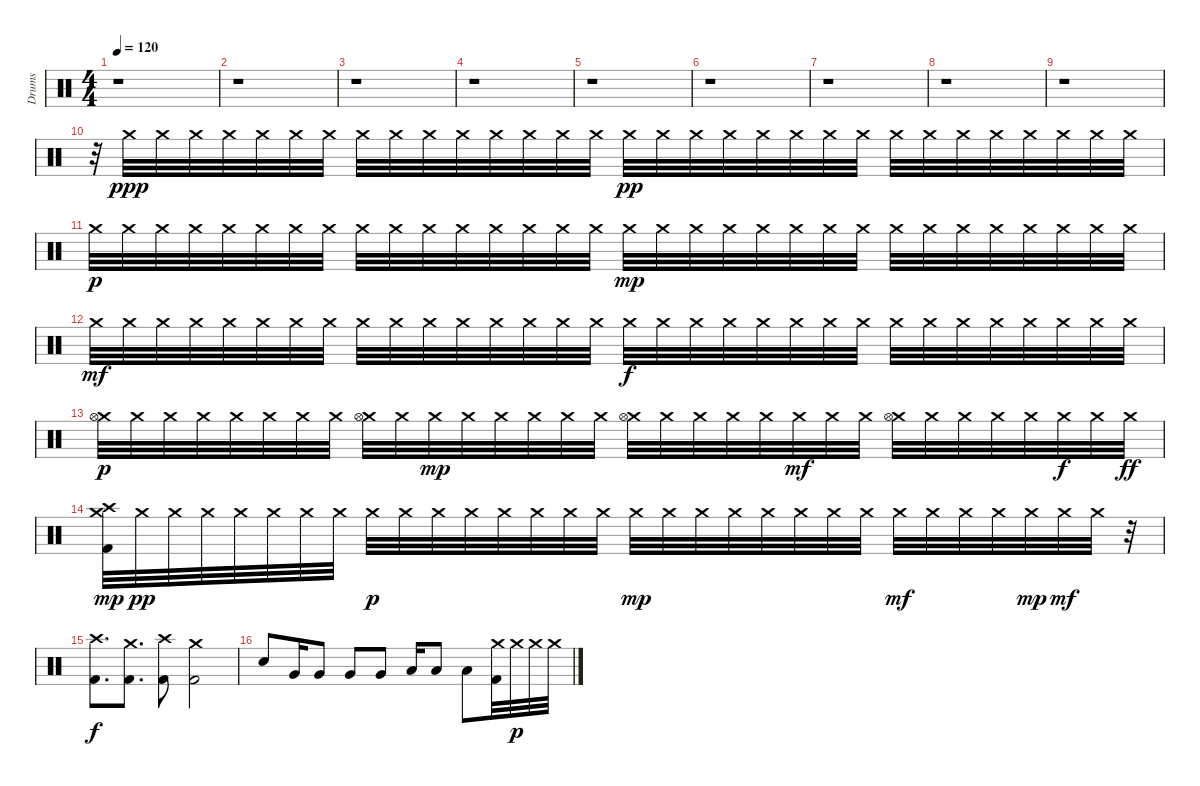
\track ("Drums" "Drums") {instrument percussion}
\staff {score}
\articulation defaults
\ts (4 4)
\tempo 120
\clef neutral
\ks c
r.1{dy ppp} |
r.1 |
r.1 |
r.1 |
r.1 |
r.1 |
r.1 |
r.1 |
r.1 |
r.32 "Crash medium (hit)".32 "Crash medium (hit)".32 "Crash medium (hit)".32 "Crash medium (hit)".32 "Crash medium (hit)".32 "Crash medium (hit)".32 "Crash medium (hit)".32 "Crash medium (hit)".32 "Crash medium (hit)".32 "Crash medium (hit)".32 "Crash medium (hit)".32 "Crash medium (hit)".32 "Crash medium (hit)".32 "Crash medium (hit)".32 "Crash medium (hit)".32 "Crash medium (hit)".32{dy pp} "Crash medium (hit)".32 "Crash medium (hit)".32 "Crash medium (hit)".32 "Crash medium (hit)".32 "Crash medium (hit)".32 "Crash medium (hit)".32 "Crash medium (hit)".32 "Crash medium (hit)".32 "Crash medium (hit)".32 "Crash medium (hit)".32 "Crash medium (hit)".32 "Crash medium (hit)".32 "Crash medium (hit)".32 "Crash medium (hit)".32 "Crash medium (hit)".32 |
"Crash medium (hit)".32{dy p} "Crash medium (hit)".32 "Crash medium (hit)".32 "Crash medium (hit)".32 "Crash medium (hit)".32 "Crash medium (hit)".32 "Crash medium (hit)".32 "Crash medium (hit)".32 "Crash medium (hit)".32 "Crash medium (hit)".32 "Crash medium (hit)".32 "Crash medium (hit)".32 "Crash medium (hit)".32 "Crash medium (hit)".32 "Crash medium (hit)".32 "Crash medium (hit)".32 "Crash medium (hit)".32{dy mp} "Crash medium (hit)".32 "Crash medium (hit)".32 "Crash medium (hit)".32 "Crash medium (hit)".32 "Crash medium (hit)".32 "Crash medium (hit)".32 "Crash medium (hit)".32 "Crash medium (hit)".32 "Crash medium (hit)".32 "Crash medium (hit)".32 "Crash medium (hit)".32 "Crash medium (hit)".32 "Crash medium (hit)".32 "Crash medium (hit)".32 "Crash medium (hit)".32 |
"Crash medium (hit)".32{dy mf} "Crash medium (hit)".32 "Crash medium (hit)".32 "Crash medium (hit)".32 "Crash medium (hit)".32 "Crash medium (hit)".32 "Crash medium (hit)".32 "Crash medium (hit)".32 "Crash medium (hit)".32 "Crash medium (hit)".32 "Crash medium (hit)".32 "Crash medium (hit)".32 "Crash medium (hit)".32 "Crash medium (hit)".32 "Crash medium (hit)".32 "Crash medium (hit)".32 "Crash medium (hit)".32{dy f} "Crash medium (hit)".32 "Crash medium (hit)".32 "Crash medium (hit)".32 "Crash medium (hit)".32 "Crash medium (hit)".32 "Crash medium (hit)".32 "Crash medium (hit)".32 "Crash medium (hit)".32 "Crash medium (hit)".32 "Crash medium (hit)".32 "Crash medium (hit)".32 "Crash medium (hit)".32 "Crash medium (hit)".32 "Crash medium (hit)".32 "Crash medium (hit)".32 |
("Crash medium (hit)" "Hi-Hat (open)").32{dy p} "Crash medium (hit)".32 "Crash medium (hit)".32 "Crash medium (hit)".32 "Crash medium (hit)".32 "Crash medium (hit)".32 "Crash medium (hit)".32 "Crash medium (hit)".32 ("Crash medium (hit)" "Hi-Hat (open)").32 "Crash medium (hit)".32 "Crash medium (hit)".32{dy mp} "Crash medium (hit)".32 "Crash medium (hit)".32 "Crash medium (hit)".32 "Crash medium (hit)".32 "Crash medium (hit)".32 ("Crash medium (hit)" "Hi-Hat (open)").32 "Crash medium (hit)".32 "Crash medium (hit)".32 "Crash medium (hit)".32 "Crash medium (hit)".32 "Crash medium (hit)".32{dy mf} "Crash medium (hit)".32 "Crash medium (hit)".32 ("Crash medium (hit)" "Hi-Hat (open)").32 "Crash medium (hit)".32 "Crash medium (hit)".32 "Crash medium (hit)".32 "Crash medium (hit)".32 "Crash medium (hit)".32{dy f} "Crash medium (hit)".32 "Crash medium (hit)".32{dy ff} |
("Crash medium (hit)" "Crash high (hit)" "Kick (hit) 2").32{dy mp} "Crash medium (hit)".32{dy pp} "Crash medium (hit)".32 "Crash medium (hit)".32 "Crash medium (hit)".32 "Crash medium (hit)".32 "Crash medium (hit)".32 "Crash medium (hit)".32 "Crash medium (hit)".32{dy p} "Crash medium (hit)".32 "Crash medium (hit)".32 "Crash medium (hit)".32 "Crash medium (hit)".32 "Crash medium (hit)".32 "Crash medium (hit)".32 "Crash medium (hit)".32 "Crash medium (hit)".32{dy mp} "Crash medium (hit)".32 "Crash medium (hit)".32 "Crash medium (hit)".32 "Crash medium (hit)".32 "Crash medium (hit)".32 "Crash medium (hit)".32 "Crash medium (hit)".32 "Crash medium (hit)".32{dy mf} "Crash medium (hit)".32 "Crash medium (hit)".32 "Crash medium (hit)".32 "Crash medium (hit)".32{dy mp} "Crash medium (hit)".32{dy mf} "Crash medium (hit)".32 r.32 |
("Crash high (hit)" "Kick (hit) 2").8{d dy f} ("Crash medium (hit)" "Kick (hit) 2").8{d} ("Crash high (hit)" "Kick (hit) 2").8 ("Crash medium (hit)" "Kick (hit) 2").2 |
"Electric Snare (hit)".8 "Very Low Tom (hit)".16 "Very Low Tom (hit)".8 "Very Low Tom (hit)".8 "Very Low Tom (hit)".8 "Low Floor Tom (hit)".16 "Low Floor Tom (hit)".8 "Low Floor Tom (hit)".8 ("Crash medium (hit)" "Kick (hit) 2").32 "Crash medium (hit)".32{dy p} "Crash medium (hit)".32 "Crash medium (hit)".32
